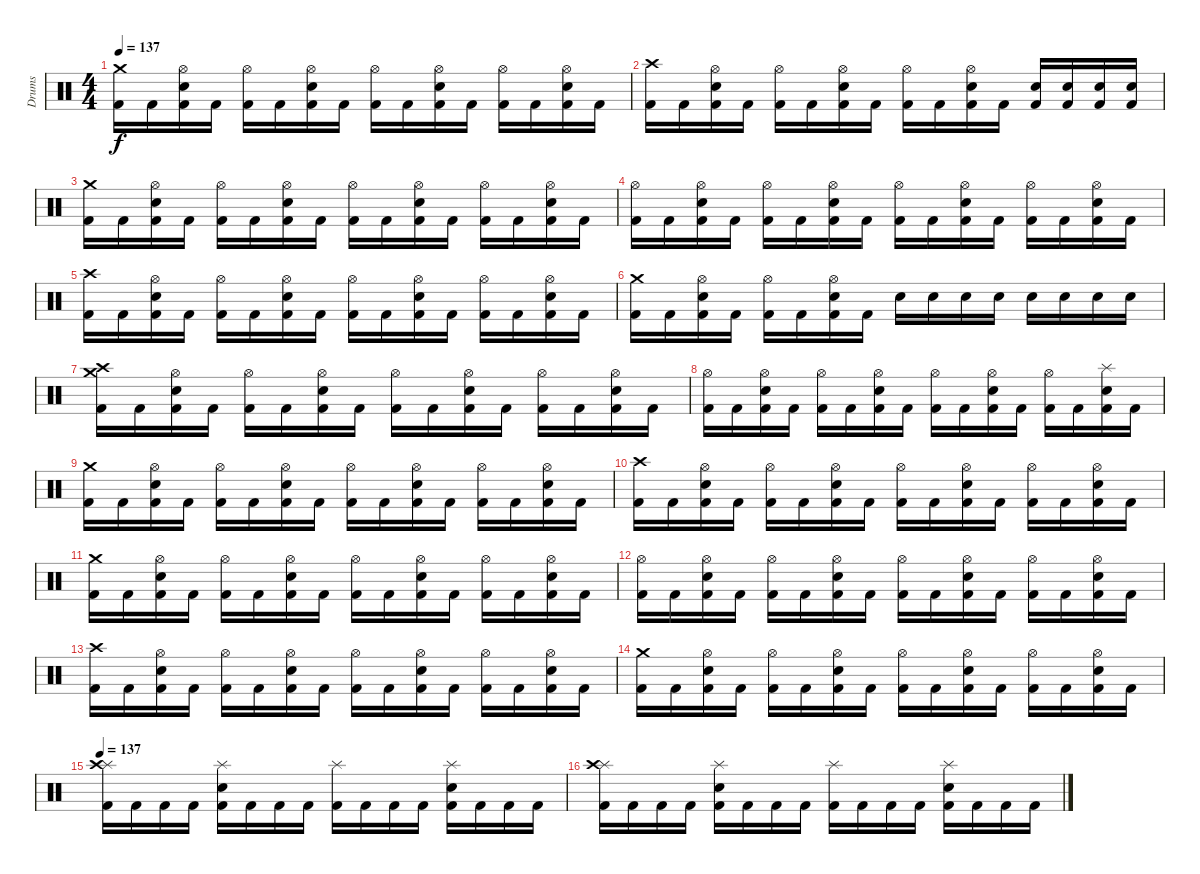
\track ("Drums" "Drums") {instrument percussion}
\staff {score}
\articulation defaults
\ts (4 4)
\tempo 137
\clef neutral
\ks c
("Crash medium (hit)" "Kick (hit) 2").16{dy f} "Kick (hit) 2".16 ("Hi-Hat (open)" "Snare (hit) 2" "Kick (hit) 2").16 "Kick (hit) 2".16 ("Hi-Hat (open)" "Kick (hit) 2").16 "Kick (hit) 2".16 ("Hi-Hat (open)" "Snare (hit) 2" "Kick (hit) 2").16 "Kick (hit) 2".16 ("Hi-Hat (open)" "Kick (hit) 2").16 "Kick (hit) 2".16 ("Hi-Hat (open)" "Snare (hit) 2" "Kick (hit) 2").16 "Kick (hit) 2".16 ("Hi-Hat (open)" "Kick (hit) 2").16 "Kick (hit) 2".16 ("Hi-Hat (open)" "Snare (hit) 2" "Kick (hit) 2").16 "Kick (hit) 2".16 |
("Crash high (hit)" "Kick (hit) 2").16 "Kick (hit) 2".16 ("Hi-Hat (open)" "Snare (hit) 2" "Kick (hit) 2").16 "Kick (hit) 2".16 ("Hi-Hat (open)" "Kick (hit) 2").16 "Kick (hit) 2".16 ("Hi-Hat (open)" "Snare (hit) 2" "Kick (hit) 2").16 "Kick (hit) 2".16 ("Hi-Hat (open)" "Kick (hit) 2").16 "Kick (hit) 2".16 ("Hi-Hat (open)" "Snare (hit) 2" "Kick (hit) 2").16 "Kick (hit) 2".16 ("Snare (hit) 2" "Kick (hit) 2").16 ("Snare (hit) 2" "Kick (hit) 2").16 ("Snare (hit) 2" "Kick (hit) 2").16 ("Snare (hit) 2" "Kick (hit) 2").16 |
("Crash medium (hit)" "Kick (hit) 2").16 "Kick (hit) 2".16 ("Hi-Hat (open)" "Snare (hit) 2" "Kick (hit) 2").16 "Kick (hit) 2".16 ("Hi-Hat (open)" "Kick (hit) 2").16 "Kick (hit) 2".16 ("Hi-Hat (open)" "Snare (hit) 2" "Kick (hit) 2").16 "Kick (hit) 2".16 ("Hi-Hat (open)" "Kick (hit) 2").16 "Kick (hit) 2".16 ("Hi-Hat (open)" "Snare (hit) 2" "Kick (hit) 2").16 "Kick (hit) 2".16 ("Hi-Hat (open)" "Kick (hit) 2").16 "Kick (hit) 2".16 ("Hi-Hat (open)" "Snare (hit) 2" "Kick (hit) 2").16 "Kick (hit) 2".16 |
("Hi-Hat (open)" "Kick (hit) 2").16 "Kick (hit) 2".16 ("Hi-Hat (open)" "Snare (hit) 2" "Kick (hit) 2").16 "Kick (hit) 2".16 ("Hi-Hat (open)" "Kick (hit) 2").16 "Kick (hit) 2".16 ("Hi-Hat (open)" "Snare (hit) 2" "Kick (hit) 2").16 "Kick (hit) 2".16 ("Hi-Hat (open)" "Kick (hit) 2").16 "Kick (hit) 2".16 ("Hi-Hat (open)" "Snare (hit) 2" "Kick (hit) 2").16 "Kick (hit) 2".16 ("Hi-Hat (open)" "Kick (hit) 2").16 "Kick (hit) 2".16 ("Hi-Hat (open)" "Snare (hit) 2" "Kick (hit) 2").16 "Kick (hit) 2".16 |
("Crash high (hit)" "Kick (hit) 2").16 "Kick (hit) 2".16 ("Hi-Hat (open)" "Snare (hit) 2" "Kick (hit) 2").16 "Kick (hit) 2".16 ("Hi-Hat (open)" "Kick (hit) 2").16 "Kick (hit) 2".16 ("Hi-Hat (open)" "Snare (hit) 2" "Kick (hit) 2").16 "Kick (hit) 2".16 ("Hi-Hat (open)" "Kick (hit) 2").16 "Kick (hit) 2".16 ("Hi-Hat (open)" "Snare (hit) 2" "Kick (hit) 2").16 "Kick (hit) 2".16 ("Hi-Hat (open)" "Kick (hit) 2").16 "Kick (hit) 2".16 ("Hi-Hat (open)" "Snare (hit) 2" "Kick (hit) 2").16 "Kick (hit) 2".16 |
("Crash medium (hit)" "Kick (hit) 2").16 "Kick (hit) 2".16 ("Hi-Hat (open)" "Snare (hit) 2" "Kick (hit) 2").16 "Kick (hit) 2".16 ("Hi-Hat (open)" "Kick (hit) 2").16 "Kick (hit) 2".16 ("Hi-Hat (open)" "Snare (hit) 2" "Kick (hit) 2").16 "Kick (hit) 2".16 "Snare (hit) 2".16 "Snare (hit) 2".16 "Snare (hit) 2".16 "Snare (hit) 2".16 "Snare (hit) 2".16 "Snare (hit) 2".16 "Snare (hit) 2".16 "Snare (hit) 2".16 |
("Crash medium (hit)" "Crash high (hit)" "Kick (hit) 2").16 "Kick (hit) 2".16 ("Hi-Hat (open)" "Snare (hit) 2" "Kick (hit) 2").16 "Kick (hit) 2".16 ("Hi-Hat (open)" "Kick (hit) 2").16 "Kick (hit) 2".16 ("Hi-Hat (open)" "Snare (hit) 2" "Kick (hit) 2").16 "Kick (hit) 2".16 ("Hi-Hat (open)" "Kick (hit) 2").16 "Kick (hit) 2".16 ("Hi-Hat (open)" "Snare (hit) 2" "Kick (hit) 2").16 "Kick (hit) 2".16 ("Hi-Hat (open)" "Kick (hit) 2").16 "Kick (hit) 2".16 ("Hi-Hat (open)" "Snare (hit) 2" "Kick (hit) 2").16 "Kick (hit) 2".16 |
("Hi-Hat (open)" "Kick (hit) 2").16 "Kick (hit) 2".16 ("Hi-Hat (open)" "Snare (hit) 2" "Kick (hit) 2").16 "Kick (hit) 2".16 ("Hi-Hat (open)" "Kick (hit) 2").16 "Kick (hit) 2".16 ("Hi-Hat (open)" "Snare (hit) 2" "Kick (hit) 2").16 "Kick (hit) 2".16 ("Hi-Hat (open)" "Kick (hit) 2").16 "Kick (hit) 2".16 ("Hi-Hat (open)" "Snare (hit) 2" "Kick (hit) 2").16 "Kick (hit) 2".16 ("Hi-Hat (open)" "Kick (hit) 2").16 "Kick (hit) 2".16 ("Splash (hit)" "Snare (hit) 2" "Kick (hit) 2").16 "Kick (hit) 2".16 |
("Crash medium (hit)" "Kick (hit) 2").16 "Kick (hit) 2".16 ("Hi-Hat (open)" "Snare (hit) 2" "Kick (hit) 2").16 "Kick (hit) 2".16 ("Hi-Hat (open)" "Kick (hit) 2").16 "Kick (hit) 2".16 ("Hi-Hat (open)" "Snare (hit) 2" "Kick (hit) 2").16 "Kick (hit) 2".16 ("Hi-Hat (open)" "Kick (hit) 2").16 "Kick (hit) 2".16 ("Hi-Hat (open)" "Snare (hit) 2" "Kick (hit) 2").16 "Kick (hit) 2".16 ("Hi-Hat (open)" "Kick (hit) 2").16 "Kick (hit) 2".16 ("Hi-Hat (open)" "Snare (hit) 2" "Kick (hit) 2").16 "Kick (hit) 2".16 |
("Crash high (hit)" "Kick (hit) 2").16 "Kick (hit) 2".16 ("Hi-Hat (open)" "Snare (hit) 2" "Kick (hit) 2").16 "Kick (hit) 2".16 ("Hi-Hat (open)" "Kick (hit) 2").16 "Kick (hit) 2".16 ("Hi-Hat (open)" "Snare (hit) 2" "Kick (hit) 2").16 "Kick (hit) 2".16 ("Hi-Hat (open)" "Kick (hit) 2").16 "Kick (hit) 2".16 ("Hi-Hat (open)" "Snare (hit) 2" "Kick (hit) 2").16 "Kick (hit) 2".16 ("Hi-Hat (open)" "Kick (hit) 2").16 "Kick (hit) 2".16 ("Hi-Hat (open)" "Snare (hit) 2" "Kick (hit) 2").16 "Kick (hit) 2".16 |
("Crash medium (hit)" "Kick (hit) 2").16 "Kick (hit) 2".16 ("Hi-Hat (open)" "Snare (hit) 2" "Kick (hit) 2").16 "Kick (hit) 2".16 ("Hi-Hat (open)" "Kick (hit) 2").16 "Kick (hit) 2".16 ("Hi-Hat (open)" "Snare (hit) 2" "Kick (hit) 2").16 "Kick (hit) 2".16 ("Hi-Hat (open)" "Kick (hit) 2").16 "Kick (hit) 2".16 ("Hi-Hat (open)" "Snare (hit) 2" "Kick (hit) 2").16 "Kick (hit) 2".16 ("Hi-Hat (open)" "Kick (hit) 2").16 "Kick (hit) 2".16 ("Hi-Hat (open)" "Snare (hit) 2" "Kick (hit) 2").16 "Kick (hit) 2".16 |
("Hi-Hat (open)" "Kick (hit) 2").16 "Kick (hit) 2".16 ("Hi-Hat (open)" "Snare (hit) 2" "Kick (hit) 2").16 "Kick (hit) 2".16 ("Hi-Hat (open)" "Kick (hit) 2").16 "Kick (hit) 2".16 ("Hi-Hat (open)" "Snare (hit) 2" "Kick (hit) 2").16 "Kick (hit) 2".16 ("Hi-Hat (open)" "Kick (hit) 2").16 "Kick (hit) 2".16 ("Hi-Hat (open)" "Snare (hit) 2" "Kick (hit) 2").16 "Kick (hit) 2".16 ("Hi-Hat (open)" "Kick (hit) 2").16 "Kick (hit) 2".16 ("Hi-Hat (open)" "Snare (hit) 2" "Kick (hit) 2").16 "Kick (hit) 2".16 |
("Crash high (hit)" "Kick (hit) 2").16 "Kick (hit) 2".16 ("Hi-Hat (open)" "Snare (hit) 2" "Kick (hit) 2").16 "Kick (hit) 2".16 ("Hi-Hat (open)" "Kick (hit) 2").16 "Kick (hit) 2".16 ("Hi-Hat (open)" "Snare (hit) 2" "Kick (hit) 2").16 "Kick (hit) 2".16 ("Hi-Hat (open)" "Kick (hit) 2").16 "Kick (hit) 2".16 ("Hi-Hat (open)" "Snare (hit) 2" "Kick (hit) 2").16 "Kick (hit) 2".16 ("Hi-Hat (open)" "Kick (hit) 2").16 "Kick (hit) 2".16 ("Hi-Hat (open)" "Snare (hit) 2" "Kick (hit) 2").16 "Kick (hit) 2".16 |
("Crash medium (hit)" "Kick (hit) 2").16 "Kick (hit) 2".16 ("Hi-Hat (open)" "Snare (hit) 2" "Kick (hit) 2").16 "Kick (hit) 2".16 ("Hi-Hat (open)" "Kick (hit) 2").16 "Kick (hit) 2".16 ("Hi-Hat (open)" "Snare (hit) 2" "Kick (hit) 2").16 "Kick (hit) 2".16 ("Hi-Hat (open)" "Kick (hit) 2").16 "Kick (hit) 2".16 ("Hi-Hat (open)" "Snare (hit) 2" "Kick (hit) 2").16 "Kick (hit) 2".16 ("Hi-Hat (open)" "Kick (hit) 2").16 "Kick (hit) 2".16 ("Hi-Hat (open)" "Snare (hit) 2" "Kick (hit) 2").16 "Kick (hit) 2".16 |
\tempo 137
("Splash (hit)" "Crash high (hit)" "Kick (hit) 2").16 "Kick (hit) 2".16 "Kick (hit) 2".16 "Kick (hit) 2".16 ("Splash (hit)" "Snare (hit) 2" "Kick (hit) 2").16 "Kick (hit) 2".16 "Kick (hit) 2".16 "Kick (hit) 2".16 ("Splash (hit)" "Kick (hit) 2").16 "Kick (hit) 2".16 "Kick (hit) 2".16 "Kick (hit) 2".16 ("Splash (hit)" "Snare (hit) 2" "Kick (hit) 2").16 "Kick (hit) 2".16 "Kick (hit) 2".16 "Kick (hit) 2".16 |
("Splash (hit)" "Crash high (hit)" "Kick (hit) 2").16 "Kick (hit) 2".16 "Kick (hit) 2".16 "Kick (hit) 2".16 ("Splash (hit)" "Snare (hit) 2" "Kick (hit) 2").16 "Kick (hit) 2".16 "Kick (hit) 2".16 "Kick (hit) 2".16 ("Splash (hit)" "Kick (hit) 2").16 "Kick (hit) 2".16 "Kick (hit) 2".16 "Kick (hit) 2".16 ("Splash (hit)" "Snare (hit) 2" "Kick (hit) 2").16 "Kick (hit) 2".16 "Kick (hit) 2".16 "Kick (hit) 2".16
